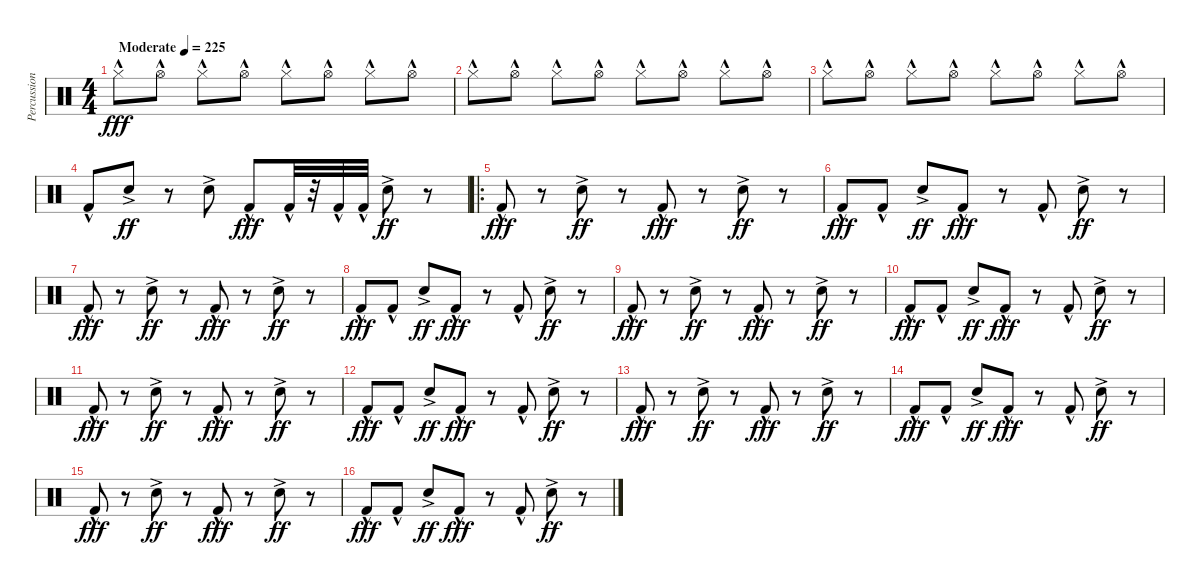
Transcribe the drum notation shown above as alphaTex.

\track ("Percussion" "Percussion") {instrument percussion}
\staff {score}
\articulation defaults
\ts (4 4)
\tempo (225 "Moderate")
\clef neutral
\ks c "Hi-Hat (closed)"{hac}.8{dy fff} "Hi-Hat (open)"{hac}.8 "Hi-Hat (closed)"{hac}.8 "Hi-Hat (open)"{hac}.8 "Hi-Hat (closed)"{hac}.8 "Hi-Hat (open)"{hac}.8 "Hi-Hat (closed)"{hac}.8 "Hi-Hat (open)"{hac}.8
|
"Hi-Hat (closed)"{hac}.8 "Hi-Hat (open)"{hac}.8 "Hi-Hat (closed)"{hac}.8 "Hi-Hat (open)"{hac}.8 "Hi-Hat (closed)"{hac}.8 "Hi-Hat (open)"{hac}.8 "Hi-Hat (closed)"{hac}.8 "Hi-Hat (open)"{hac}.8 |
"Hi-Hat (closed)"{hac}.8 "Hi-Hat (open)"{hac}.8 "Hi-Hat (closed)"{hac}.8 "Hi-Hat (open)"{hac}.8 "Hi-Hat (closed)"{hac}.8 "Hi-Hat (open)"{hac}.8 "Hi-Hat (closed)"{hac}.8 "Hi-Hat (open)"{hac}.8 |
"Kick (hit) 2"{hac}.8 "Snare (hit) 2"{ac}.8{dy ff} r.8 "Snare (hit) 2"{ac}.8 "Kick (hit) 2"{hac}.8{dy fff} "Kick (hit) 2"{hac}.32 r.32 "Kick (hit) 2"{hac}.32 "Kick (hit) 2"{hac}.32 "Snare (hit) 2"{ac}.8{dy ff} r.8 |
\ro "Kick (hit) 2"{hac}.8{dy fff}
r.8 "Snare (hit) 2"{ac}.8{dy ff} r.8 "Kick (hit) 2"{hac}.8{dy fff} r.8 "Snare (hit) 2"{ac}.8{dy ff} r.8 |
"Kick (hit) 2"{hac}.8{dy fff} "Kick (hit) 2"{hac}.8 "Snare (hit) 2"{ac}.8{dy ff} "Kick (hit) 2"{hac}.8{dy fff} r.8 "Kick (hit) 2"{hac}.8 "Snare (hit) 2"{ac}.8{dy ff} r.8 |
"Kick (hit) 2"{hac}.8{dy fff} r.8 "Snare (hit) 2"{ac}.8{dy ff} r.8 "Kick (hit) 2"{hac}.8{dy fff} r.8 "Snare (hit) 2"{ac}.8{dy ff} r.8 |
"Kick (hit) 2"{hac}.8{dy fff} "Kick (hit) 2"{hac}.8 "Snare (hit) 2"{ac}.8{dy ff} "Kick (hit) 2"{hac}.8{dy fff} r.8 "Kick (hit) 2"{hac}.8 "Snare (hit) 2"{ac}.8{dy ff} r.8 |
"Kick (hit) 2"{hac}.8{dy fff} r.8 "Snare (hit) 2"{ac}.8{dy ff} r.8 "Kick (hit) 2"{hac}.8{dy fff} r.8 "Snare (hit) 2"{ac}.8{dy ff} r.8 |
"Kick (hit) 2"{hac}.8{dy fff} "Kick (hit) 2"{hac}.8 "Snare (hit) 2"{ac}.8{dy ff} "Kick (hit) 2"{hac}.8{dy fff} r.8 "Kick (hit) 2"{hac}.8 "Snare (hit) 2"{ac}.8{dy ff} r.8 |
"Kick (hit) 2"{hac}.8{dy fff} r.8 "Snare (hit) 2"{ac}.8{dy ff} r.8 "Kick (hit) 2"{hac}.8{dy fff} r.8 "Snare (hit) 2"{ac}.8{dy ff} r.8 |
"Kick (hit) 2"{hac}.8{dy fff} "Kick (hit) 2"{hac}.8 "Snare (hit) 2"{ac}.8{dy ff} "Kick (hit) 2"{hac}.8{dy fff} r.8 "Kick (hit) 2"{hac}.8 "Snare (hit) 2"{ac}.8{dy ff} r.8 |
"Kick (hit) 2"{hac}.8{dy fff} r.8 "Snare (hit) 2"{ac}.8{dy ff} r.8 "Kick (hit) 2"{hac}.8{dy fff} r.8 "Snare (hit) 2"{ac}.8{dy ff} r.8 |
"Kick (hit) 2"{hac}.8{dy fff} "Kick (hit) 2"{hac}.8 "Snare (hit) 2"{ac}.8{dy ff} "Kick (hit) 2"{hac}.8{dy fff} r.8 "Kick (hit) 2"{hac}.8 "Snare (hit) 2"{ac}.8{dy ff} r.8 |
"Kick (hit) 2"{hac}.8{dy fff} r.8 "Snare (hit) 2"{ac}.8{dy ff} r.8 "Kick (hit) 2"{hac}.8{dy fff} r.8 "Snare (hit) 2"{ac}.8{dy ff} r.8 |
"Kick (hit) 2"{hac}.8{dy fff} "Kick (hit) 2"{hac}.8 "Snare (hit) 2"{ac}.8{dy ff} "Kick (hit) 2"{hac}.8{dy fff} r.8 "Kick (hit) 2"{hac}.8 "Snare (hit) 2"{ac}.8{dy ff} r.8
